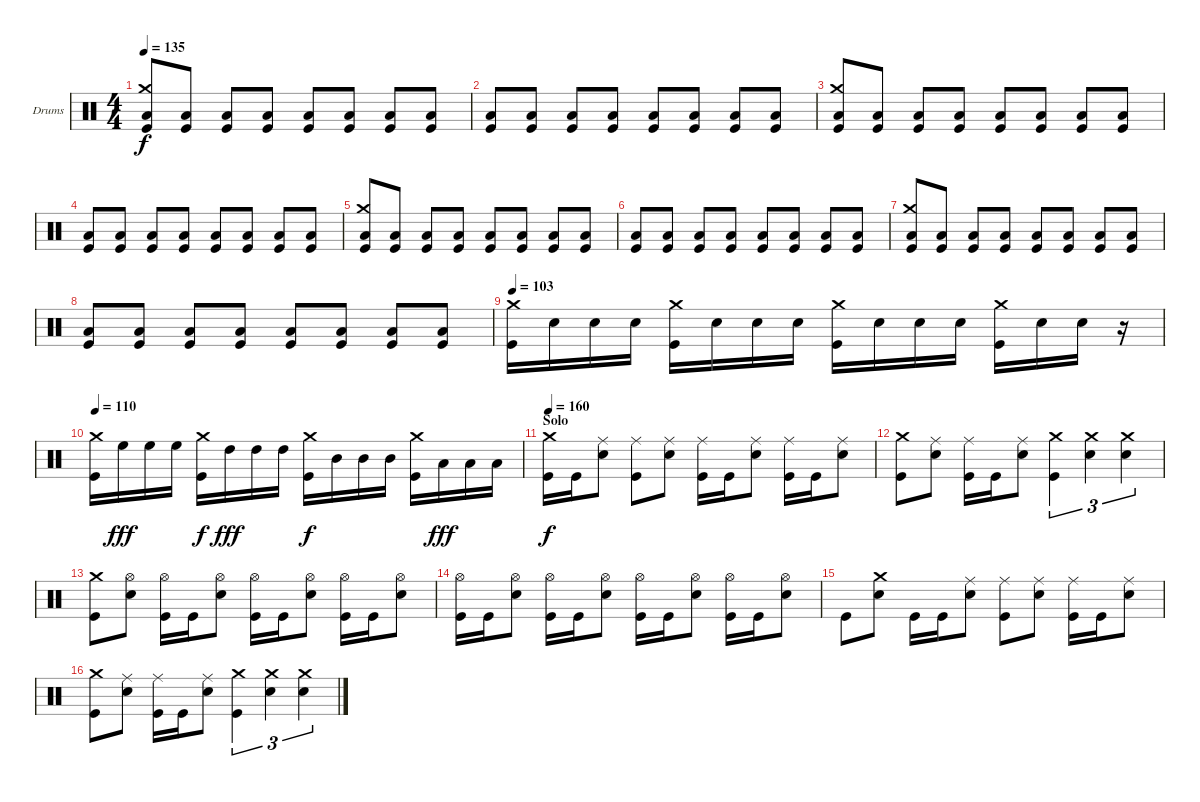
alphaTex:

\bracketExtendMode groupsimilarinstruments
\firstSystemTrackNameOrientation horizontal
\otherSystemsTrackNameOrientation horizontal
\track ("Drums" "Drums") {instrument percussion}
\staff {score}
\articulation defaults
\ts (4 4)
\tempo 135
\clef neutral
\ks c
("Low Tom (hit)" "Crash medium (hit)" "Kick (hit)").8{dy f} ("Low Tom (hit)" "Kick (hit)").8 ("Low Tom (hit)" "Kick (hit)").8 ("Low Tom (hit)" "Kick (hit)").8 ("Low Tom (hit)" "Kick (hit)").8 ("Low Tom (hit)" "Kick (hit)").8 ("Low Tom (hit)" "Kick (hit)").8 ("Low Tom (hit)" "Kick (hit)").8 |
("Low Tom (hit)" "Kick (hit)").8 ("Low Tom (hit)" "Kick (hit)").8 ("Low Tom (hit)" "Kick (hit)").8 ("Low Tom (hit)" "Kick (hit)").8 ("Low Tom (hit)" "Kick (hit)").8 ("Low Tom (hit)" "Kick (hit)").8 ("Low Tom (hit)" "Kick (hit)").8 ("Low Tom (hit)" "Kick (hit)").8 |
("Low Tom (hit)" "Crash medium (hit)" "Kick (hit)").8 ("Low Tom (hit)" "Kick (hit)").8 ("Low Tom (hit)" "Kick (hit)").8 ("Low Tom (hit)" "Kick (hit)").8 ("Low Tom (hit)" "Kick (hit)").8 ("Low Tom (hit)" "Kick (hit)").8 ("Low Tom (hit)" "Kick (hit)").8 ("Low Tom (hit)" "Kick (hit)").8 |
("Low Tom (hit)" "Kick (hit)").8 ("Low Tom (hit)" "Kick (hit)").8 ("Low Tom (hit)" "Kick (hit)").8 ("Low Tom (hit)" "Kick (hit)").8 ("Low Tom (hit)" "Kick (hit)").8 ("Low Tom (hit)" "Kick (hit)").8 ("Low Tom (hit)" "Kick (hit)").8 ("Low Tom (hit)" "Kick (hit)").8 |
("Low Tom (hit)" "Crash medium (hit)" "Kick (hit)").8 ("Low Tom (hit)" "Kick (hit)").8 ("Low Tom (hit)" "Kick (hit)").8 ("Low Tom (hit)" "Kick (hit)").8 ("Low Tom (hit)" "Kick (hit)").8 ("Low Tom (hit)" "Kick (hit)").8 ("Low Tom (hit)" "Kick (hit)").8 ("Low Tom (hit)" "Kick (hit)").8 |
("Low Tom (hit)" "Kick (hit)").8 ("Low Tom (hit)" "Kick (hit)").8 ("Low Tom (hit)" "Kick (hit)").8 ("Low Tom (hit)" "Kick (hit)").8 ("Low Tom (hit)" "Kick (hit)").8 ("Low Tom (hit)" "Kick (hit)").8 ("Low Tom (hit)" "Kick (hit)").8 ("Low Tom (hit)" "Kick (hit)").8 |
("Low Tom (hit)" "Crash medium (hit)" "Kick (hit)").8 ("Low Tom (hit)" "Kick (hit)").8 ("Low Tom (hit)" "Kick (hit)").8 ("Low Tom (hit)" "Kick (hit)").8 ("Low Tom (hit)" "Kick (hit)").8 ("Low Tom (hit)" "Kick (hit)").8 ("Low Tom (hit)" "Kick (hit)").8 ("Low Tom (hit)" "Kick (hit)").8 |
("Low Tom (hit)" "Kick (hit)").8 ("Low Tom (hit)" "Kick (hit)").8 ("Low Tom (hit)" "Kick (hit)").8 ("Low Tom (hit)" "Kick (hit)").8 ("Low Tom (hit)" "Kick (hit)").8 ("Low Tom (hit)" "Kick (hit)").8 ("Low Tom (hit)" "Kick (hit)").8 ("Low Tom (hit)" "Kick (hit)").8 |
\tempo 103
("Crash medium (hit)" "Kick (hit)").16 "Snare (hit) 2".16 "Snare (hit) 2".16 "Snare (hit) 2".16 ("Crash medium (hit)" "Kick (hit)").16 "Snare (hit) 2".16 "Snare (hit) 2".16 "Snare (hit) 2".16 ("Crash medium (hit)" "Kick (hit)").16 "Snare (hit) 2".16 "Snare (hit) 2".16 "Snare (hit) 2".16 ("Crash medium (hit)" "Kick (hit)").16 "Snare (hit) 2".16 "Snare (hit) 2".16 r.16 |
\tempo 110
("Crash medium (hit)" "Kick (hit)").16 "High Floor Tom (hit)".16{dy fff} "High Floor Tom (hit)".16 "High Floor Tom (hit)".16 ("Crash medium (hit)" "Kick (hit)").16{dy f} "High Tom (hit)".16{dy fff} "High Tom (hit)".16 "High Tom (hit)".16 ("Crash medium (hit)" "Kick (hit)").16{dy f} "Mid Tom (hit)".16 "Mid Tom (hit)".16 "Mid Tom (hit)".16 ("Crash medium (hit)" "Kick (hit)").16 "Low Tom (hit)".16{dy fff} "Low Tom (hit)".16 "Low Tom (hit)".16 |
\section ("" "Solo")
\tempo 160
("Crash medium (hit)" "Kick (hit)").16{dy f} "Kick (hit)".16 ("Ride (middle)" "Snare (hit) 2").8 ("Ride (middle)" "Kick (hit)").8 ("Ride (middle)" "Snare (hit) 2").8 ("Ride (middle)" "Kick (hit)").16 "Kick (hit)".16 ("Ride (middle)" "Snare (hit) 2").8 ("Ride (middle)" "Kick (hit)").16 "Kick (hit)".16 ("Ride (middle)" "Snare (hit) 2").8 |
("Crash medium (hit)" "Kick (hit)").8 ("Ride (middle)" "Snare (hit) 2").8 ("Ride (middle)" "Kick (hit)").16 "Kick (hit)".16 ("Ride (middle)" "Snare (hit) 2").8 ("Crash medium (hit)" "Kick (hit)").4{tu (3 2)} ("Crash medium (hit)" "Snare (hit) 2").4{tu (3 2)} ("Crash medium (hit)" "Snare (hit) 2").4{tu (3 2)} |
("Crash medium (hit)" "Kick (hit)").8 ("Hi-Hat (open)" "Snare (hit) 2").8 ("Hi-Hat (open)" "Kick (hit)").16 "Kick (hit)".16 ("Hi-Hat (open)" "Snare (hit) 2").8 ("Hi-Hat (open)" "Kick (hit)").16 "Kick (hit)".16 ("Hi-Hat (open)" "Snare (hit) 2").8 ("Hi-Hat (open)" "Kick (hit)").16 "Kick (hit)".16 ("Hi-Hat (open)" "Snare (hit) 2").8 |
("Hi-Hat (open)" "Kick (hit)").16 "Kick (hit)".16 ("Hi-Hat (open)" "Snare (hit) 2").8 ("Hi-Hat (open)" "Kick (hit)").16 "Kick (hit)".16 ("Hi-Hat (open)" "Snare (hit) 2").8 ("Hi-Hat (open)" "Kick (hit)").16 "Kick (hit)".16 ("Hi-Hat (open)" "Snare (hit) 2").8 ("Hi-Hat (open)" "Kick (hit)").16 "Kick (hit)".16 ("Hi-Hat (open)" "Snare (hit) 2").8 |
"Kick (hit)".8 ("Crash medium (hit)" "Snare (hit) 2").8 "Kick (hit)".16 "Kick (hit)".16 ("Ride (middle)" "Snare (hit) 2").8 ("Ride (middle)" "Kick (hit)").8 ("Ride (middle)" "Snare (hit) 2").8 ("Ride (middle)" "Kick (hit)").16 "Kick (hit)".16 ("Ride (middle)" "Snare (hit) 2").8 |
("Crash medium (hit)" "Kick (hit)").8 ("Ride (middle)" "Snare (hit) 2").8 ("Ride (middle)" "Kick (hit)").16 "Kick (hit)".16 ("Ride (middle)" "Snare (hit) 2").8 ("Crash medium (hit)" "Kick (hit)").4{tu (3 2)} ("Crash medium (hit)" "Snare (hit) 2").4{tu (3 2)} ("Crash medium (hit)" "Snare (hit) 2").4{tu (3 2)}
